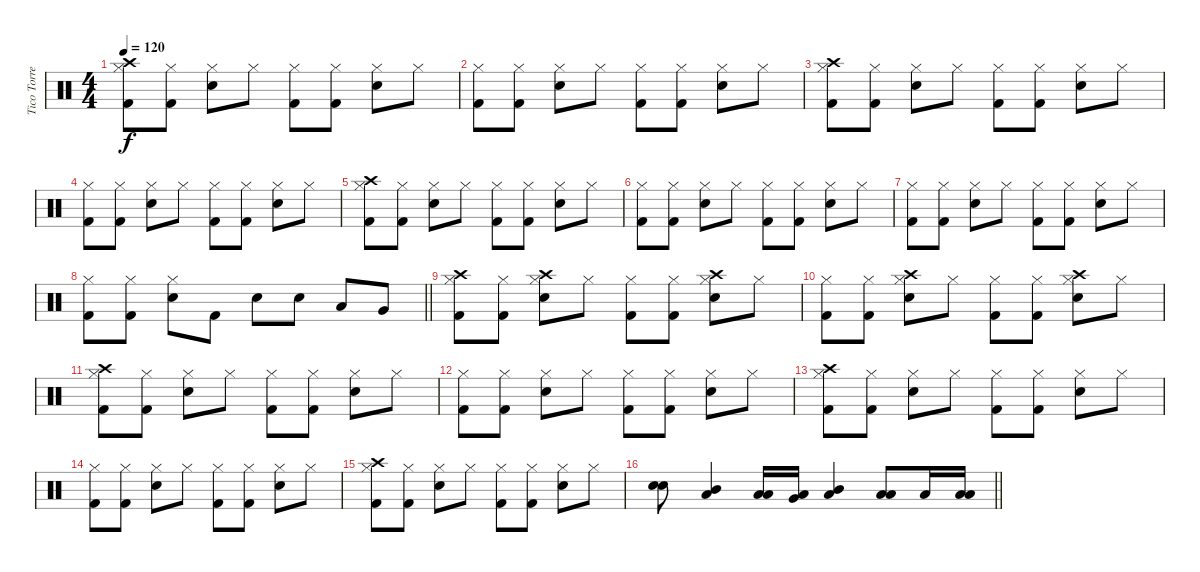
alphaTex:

\track ("Tico Torres (Drums)" "Tico Torre") {instrument percussion}
\staff {score}
\articulation defaults
\ts (4 4)
\tempo 120
\clef neutral
\ks c
("Crash high (hit)" "Hi-Hat (closed)" "Kick (hit) 2").8{dy f} ("Hi-Hat (closed)" "Kick (hit) 2").8 ("Hi-Hat (closed)" "Electric Snare (hit)").8 "Hi-Hat (closed)".8 ("Hi-Hat (closed)" "Kick (hit) 2").8 ("Hi-Hat (closed)" "Kick (hit) 2").8 ("Hi-Hat (closed)" "Electric Snare (hit)").8 "Hi-Hat (closed)".8 |
("Hi-Hat (closed)" "Kick (hit) 2").8 ("Hi-Hat (closed)" "Kick (hit) 2").8 ("Hi-Hat (closed)" "Electric Snare (hit)").8 "Hi-Hat (closed)".8 ("Hi-Hat (closed)" "Kick (hit) 2").8 ("Hi-Hat (closed)" "Kick (hit) 2").8 ("Hi-Hat (closed)" "Electric Snare (hit)").8 "Hi-Hat (closed)".8 |
("Crash high (hit)" "Hi-Hat (closed)" "Kick (hit) 2").8 ("Hi-Hat (closed)" "Kick (hit) 2").8 ("Hi-Hat (closed)" "Electric Snare (hit)").8 "Hi-Hat (closed)".8 ("Hi-Hat (closed)" "Kick (hit) 2").8 ("Hi-Hat (closed)" "Kick (hit) 2").8 ("Hi-Hat (closed)" "Electric Snare (hit)").8 "Hi-Hat (closed)".8 |
("Hi-Hat (closed)" "Kick (hit) 2").8 ("Hi-Hat (closed)" "Kick (hit) 2").8 ("Hi-Hat (closed)" "Electric Snare (hit)").8 "Hi-Hat (closed)".8 ("Hi-Hat (closed)" "Kick (hit) 2").8 ("Hi-Hat (closed)" "Kick (hit) 2").8 ("Hi-Hat (closed)" "Electric Snare (hit)").8 "Hi-Hat (closed)".8 |
("Crash high (hit)" "Hi-Hat (closed)" "Kick (hit) 2").8 ("Hi-Hat (closed)" "Kick (hit) 2").8 ("Hi-Hat (closed)" "Electric Snare (hit)").8 "Hi-Hat (closed)".8 ("Hi-Hat (closed)" "Kick (hit) 2").8 ("Hi-Hat (closed)" "Kick (hit) 2").8 ("Hi-Hat (closed)" "Electric Snare (hit)").8 "Hi-Hat (closed)".8 |
("Hi-Hat (closed)" "Kick (hit) 2").8 ("Hi-Hat (closed)" "Kick (hit) 2").8 ("Hi-Hat (closed)" "Electric Snare (hit)").8 "Hi-Hat (closed)".8 ("Hi-Hat (closed)" "Kick (hit) 2").8 ("Hi-Hat (closed)" "Kick (hit) 2").8 ("Hi-Hat (closed)" "Electric Snare (hit)").8 "Hi-Hat (closed)".8 |
("Hi-Hat (closed)" "Kick (hit) 2").8 ("Hi-Hat (closed)" "Kick (hit) 2").8 ("Hi-Hat (closed)" "Electric Snare (hit)").8 "Hi-Hat (closed)".8 ("Hi-Hat (closed)" "Kick (hit) 2").8 ("Hi-Hat (closed)" "Kick (hit) 2").8 ("Hi-Hat (closed)" "Electric Snare (hit)").8 "Hi-Hat (closed)".8 |
\barLineRight lightlight
("Hi-Hat (closed)" "Kick (hit) 2").8 ("Hi-Hat (closed)" "Kick (hit) 2").8 ("Hi-Hat (closed)" "Electric Snare (hit)").8 "Kick (hit) 2".8 "Electric Snare (hit)".8 "Electric Snare (hit)".8 "Low Tom (hit)".8 "Very Low Tom (hit)".8 |
("Crash high (hit)" "Hi-Hat (closed)" "Kick (hit) 2").8 ("Hi-Hat (closed)" "Kick (hit) 2").8 ("Crash high (hit)" "Hi-Hat (closed)" "Electric Snare (hit)").8 "Hi-Hat (closed)".8 ("Hi-Hat (closed)" "Kick (hit) 2").8 ("Hi-Hat (closed)" "Kick (hit) 2").8 ("Crash high (hit)" "Hi-Hat (closed)" "Electric Snare (hit)").8 "Hi-Hat (closed)".8 |
("Hi-Hat (closed)" "Kick (hit) 2").8 ("Hi-Hat (closed)" "Kick (hit) 2").8 ("Crash high (hit)" "Hi-Hat (closed)" "Electric Snare (hit)").8 "Hi-Hat (closed)".8 ("Hi-Hat (closed)" "Kick (hit) 2").8 ("Hi-Hat (closed)" "Kick (hit) 2").8 ("Crash high (hit)" "Hi-Hat (closed)" "Electric Snare (hit)").8 "Hi-Hat (closed)".8 |
("Crash high (hit)" "Hi-Hat (closed)" "Kick (hit) 2").8 ("Hi-Hat (closed)" "Kick (hit) 2").8 ("Hi-Hat (closed)" "Electric Snare (hit)").8 "Hi-Hat (closed)".8 ("Hi-Hat (closed)" "Kick (hit) 2").8 ("Hi-Hat (closed)" "Kick (hit) 2").8 ("Hi-Hat (closed)" "Electric Snare (hit)").8 "Hi-Hat (closed)".8 |
("Hi-Hat (closed)" "Kick (hit) 2").8 ("Hi-Hat (closed)" "Kick (hit) 2").8 ("Hi-Hat (closed)" "Electric Snare (hit)").8 "Hi-Hat (closed)".8 ("Hi-Hat (closed)" "Kick (hit) 2").8 ("Hi-Hat (closed)" "Kick (hit) 2").8 ("Hi-Hat (closed)" "Electric Snare (hit)").8 "Hi-Hat (closed)".8 |
("Crash high (hit)" "Hi-Hat (closed)" "Kick (hit) 2").8 ("Hi-Hat (closed)" "Kick (hit) 2").8 ("Hi-Hat (closed)" "Electric Snare (hit)").8 "Hi-Hat (closed)".8 ("Hi-Hat (closed)" "Kick (hit) 2").8 ("Hi-Hat (closed)" "Kick (hit) 2").8 ("Hi-Hat (closed)" "Electric Snare (hit)").8 "Hi-Hat (closed)".8 |
("Hi-Hat (closed)" "Kick (hit) 2").8 ("Hi-Hat (closed)" "Kick (hit) 2").8 ("Hi-Hat (closed)" "Electric Snare (hit)").8 "Hi-Hat (closed)".8 ("Hi-Hat (closed)" "Kick (hit) 2").8 ("Hi-Hat (closed)" "Kick (hit) 2").8 ("Hi-Hat (closed)" "Electric Snare (hit)").8 "Hi-Hat (closed)".8 |
("Crash high (hit)" "Hi-Hat (closed)" "Kick (hit) 2").8 ("Hi-Hat (closed)" "Kick (hit) 2").8 ("Hi-Hat (closed)" "Electric Snare (hit)").8 "Hi-Hat (closed)".8 ("Hi-Hat (closed)" "Kick (hit) 2").8 ("Hi-Hat (closed)" "Kick (hit) 2").8 ("Hi-Hat (closed)" "Electric Snare (hit)").8 "Hi-Hat (closed)".8 |
\barLineRight lightlight
("Electric Snare (hit)" "Electric Snare (hit)").8{bd 120} ("Mid Tom (hit)" "Low Tom (hit)").4{bd 120} ("Low Tom (hit)" "Low Tom (hit)").16{bd 120} ("Very Low Tom (hit)" "Low Tom (hit)").16{bd 120} ("Mid Tom (hit)" "Low Tom (hit)").4{bd 120} ("Low Tom (hit)" "Low Tom (hit)").8{bd 120} "Low Tom (hit)".16 ("Low Tom (hit)" "Low Tom (hit)").16
